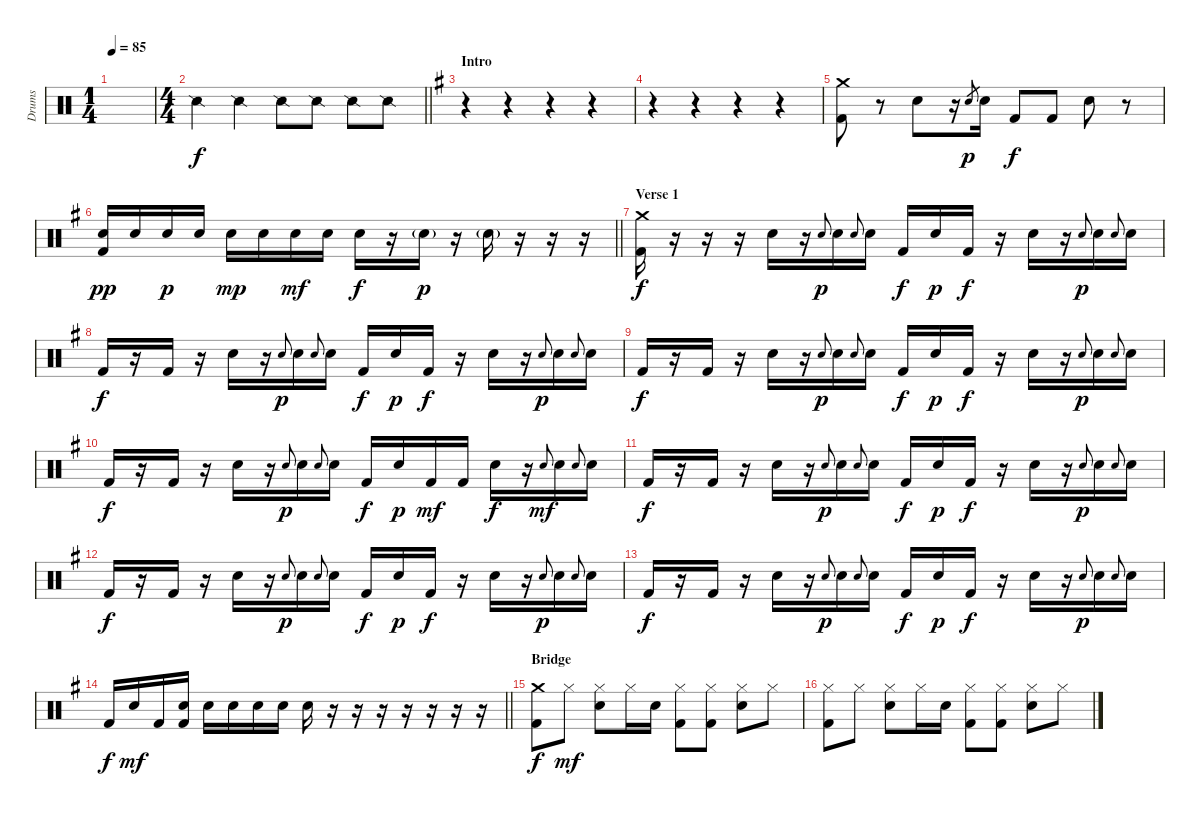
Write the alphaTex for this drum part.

\track ("Drums" "Drums") {instrument percussion}
\staff {score}
\articulation defaults
\ts (1 4)
\tempo 85
\clef neutral
\ks c
|
\ts (4 4)
\barLineRight lightlight "Snare (side stick) 2".4 "Snare (side stick) 2".4 "Snare (side stick) 2".8 "Snare (side stick) 2".8 "Snare (side stick) 2".8 "Snare (side stick) 2".8
|
\section ("" "Intro")
\ks g
r.4 r.4 r.4 r.4 |
r.4 r.4 r.4 r.4 |
("Crash medium (hit)" "Kick (hit) 2").8 r.8 "Snare (hit) 2".8 r.16 "Snare (hit) 2".8{gr dy p} "Snare (hit) 2".16 "Kick (hit) 2".8{dy f} "Kick (hit) 2".8 "Snare (hit) 2".8 r.8 |
\barLineRight lightlight
("Snare (hit) 2" "Kick (hit) 2").16{dy pp} "Snare (hit) 2".16 "Snare (hit) 2".16{dy p} "Snare (hit) 2".16 "Snare (hit) 2".16{dy mp} "Snare (hit) 2".16 "Snare (hit) 2".16{dy mf} "Snare (hit) 2".16 "Snare (hit) 2".16{dy f} r.16 "Snare (hit) 2"{g}.16{dy p} r.16 "Snare (hit) 2"{g}.16 r.16 r.16 r.16 |
\section ("" "Verse 1")
("Crash medium (hit)" "Kick (hit) 2").16{dy f} r.16 r.16 r.16 "Snare (hit) 2".16 r.16 "Snare (hit) 2".8{gr onbeat dy p} "Snare (hit) 2".16 "Snare (hit) 2".8{gr onbeat} "Snare (hit) 2".16 "Kick (hit) 2".16{dy f} "Snare (hit) 2".16{dy p} "Kick (hit) 2".16{dy f} r.16 "Snare (hit) 2".16 r.16 "Snare (hit) 2".8{gr onbeat dy p} "Snare (hit) 2".16 "Snare (hit) 2".8{gr onbeat} "Snare (hit) 2".16 |
"Kick (hit) 2".16{dy f} r.16 "Kick (hit) 2".16 r.16 "Snare (hit) 2".16 r.16 "Snare (hit) 2".8{gr onbeat dy p} "Snare (hit) 2".16 "Snare (hit) 2".8{gr onbeat} "Snare (hit) 2".16 "Kick (hit) 2".16{dy f} "Snare (hit) 2".16{dy p} "Kick (hit) 2".16{dy f} r.16 "Snare (hit) 2".16 r.16 "Snare (hit) 2".8{gr onbeat dy p} "Snare (hit) 2".16 "Snare (hit) 2".8{gr onbeat} "Snare (hit) 2".16 |
"Kick (hit) 2".16{dy f} r.16 "Kick (hit) 2".16 r.16 "Snare (hit) 2".16 r.16 "Snare (hit) 2".8{gr onbeat dy p} "Snare (hit) 2".16 "Snare (hit) 2".8{gr onbeat} "Snare (hit) 2".16 "Kick (hit) 2".16{dy f} "Snare (hit) 2".16{dy p} "Kick (hit) 2".16{dy f} r.16 "Snare (hit) 2".16 r.16 "Snare (hit) 2".8{gr onbeat dy p} "Snare (hit) 2".16 "Snare (hit) 2".8{gr onbeat} "Snare (hit) 2".16 |
"Kick (hit) 2".16{dy f} r.16 "Kick (hit) 2".16 r.16 "Snare (hit) 2".16 r.16 "Snare (hit) 2".8{gr onbeat dy p} "Snare (hit) 2".16 "Snare (hit) 2".8{gr onbeat} "Snare (hit) 2".16 "Kick (hit) 2".16{dy f} "Snare (hit) 2".16{dy p} "Kick (hit) 2".16{dy mf} "Kick (hit) 2".16 "Snare (hit) 2".16{dy f} r.16 "Snare (hit) 2".8{gr onbeat dy mf} "Snare (hit) 2".16 "Snare (hit) 2".8{gr onbeat} "Snare (hit) 2".16 |
"Kick (hit) 2".16{dy f} r.16 "Kick (hit) 2".16 r.16 "Snare (hit) 2".16 r.16 "Snare (hit) 2".8{gr onbeat dy p} "Snare (hit) 2".16 "Snare (hit) 2".8{gr onbeat} "Snare (hit) 2".16 "Kick (hit) 2".16{dy f} "Snare (hit) 2".16{dy p} "Kick (hit) 2".16{dy f} r.16 "Snare (hit) 2".16 r.16 "Snare (hit) 2".8{gr onbeat dy p} "Snare (hit) 2".16 "Snare (hit) 2".8{gr onbeat} "Snare (hit) 2".16 |
"Kick (hit) 2".16{dy f} r.16 "Kick (hit) 2".16 r.16 "Snare (hit) 2".16 r.16 "Snare (hit) 2".8{gr onbeat dy p} "Snare (hit) 2".16 "Snare (hit) 2".8{gr onbeat} "Snare (hit) 2".16 "Kick (hit) 2".16{dy f} "Snare (hit) 2".16{dy p} "Kick (hit) 2".16{dy f} r.16 "Snare (hit) 2".16 r.16 "Snare (hit) 2".8{gr onbeat dy p} "Snare (hit) 2".16 "Snare (hit) 2".8{gr onbeat} "Snare (hit) 2".16 |
"Kick (hit) 2".16{dy f} r.16 "Kick (hit) 2".16 r.16 "Snare (hit) 2".16 r.16 "Snare (hit) 2".8{gr onbeat dy p} "Snare (hit) 2".16 "Snare (hit) 2".8{gr onbeat} "Snare (hit) 2".16 "Kick (hit) 2".16{dy f} "Snare (hit) 2".16{dy p} "Kick (hit) 2".16{dy f} r.16 "Snare (hit) 2".16 r.16 "Snare (hit) 2".8{gr onbeat dy p} "Snare (hit) 2".16 "Snare (hit) 2".8{gr onbeat} "Snare (hit) 2".16 |
\barLineRight lightlight "Kick (hit) 2".16{dy f} "Snare (hit) 2".16{dy mf} "Kick (hit) 2".16
("Snare (hit) 2" "Kick (hit) 2").16 "Snare (hit) 2".16 "Snare (hit) 2".16 "Snare (hit) 2".16 "Snare (hit) 2".16 "Snare (hit) 2".16 r.16 r.16 r.16 r.16 r.16 r.16 r.16 |
\section ("" "Bridge")
("Crash medium (hit)" "Kick (hit) 2").8{dy f} "Hi-Hat (closed)".8{dy mf} ("Hi-Hat (closed)" "Snare (hit) 2").8 "Hi-Hat (closed)".16 "Snare (hit) 2".16 ("Hi-Hat (closed)" "Kick (hit) 2").8 ("Hi-Hat (closed)" "Kick (hit) 2").8 ("Hi-Hat (closed)" "Snare (hit) 2").8 "Hi-Hat (closed)".8 |
("Hi-Hat (closed)" "Kick (hit) 2").8 "Hi-Hat (closed)".8 ("Hi-Hat (closed)" "Snare (hit) 2").8 "Hi-Hat (closed)".16 "Snare (hit) 2".16 ("Hi-Hat (closed)" "Kick (hit) 2").8 ("Hi-Hat (closed)" "Kick (hit) 2").8 ("Hi-Hat (closed)" "Snare (hit) 2").8 "Hi-Hat (closed)".8
